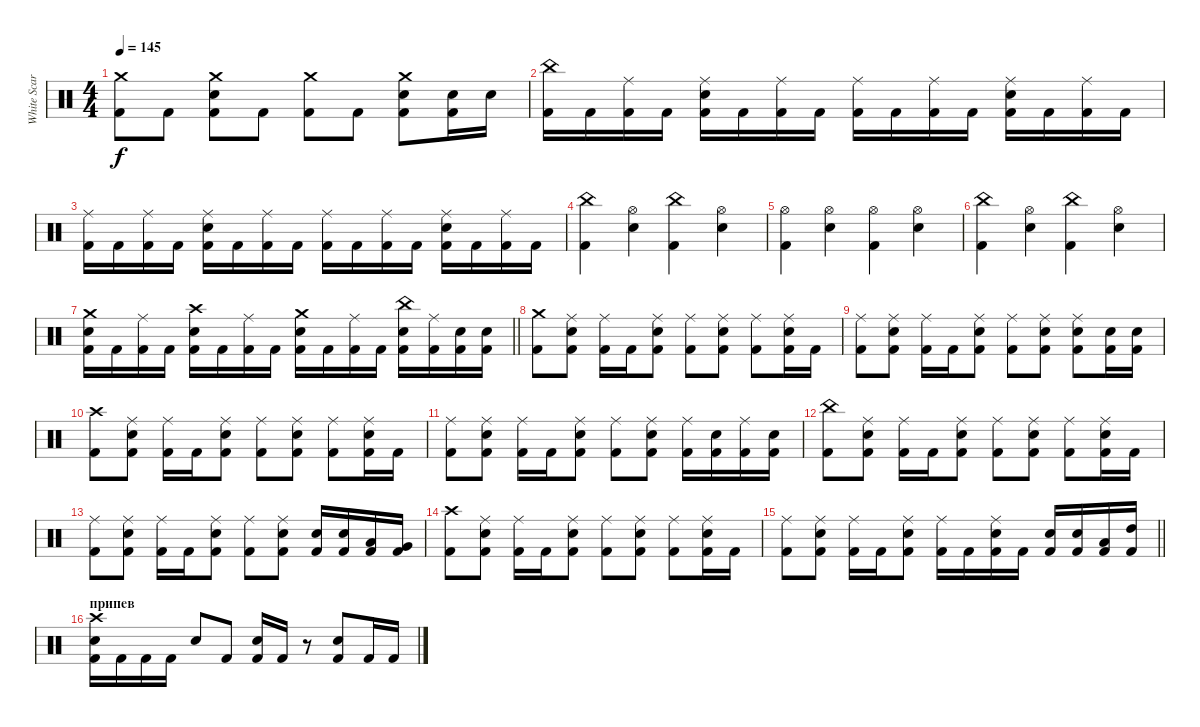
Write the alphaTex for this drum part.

\track ("White Scar" "White Scar") {instrument percussion}
\staff {score}
\articulation defaults
\ts (4 4)
\tempo 145
\clef neutral
\ks c
("Crash medium (hit)" "Kick (hit) 2").8{dy f} "Kick (hit) 2".8 ("Snare (hit) 2" "Crash medium (hit)" "Kick (hit) 2").8 "Kick (hit) 2".8 ("Crash medium (hit)" "Kick (hit) 2").8 "Kick (hit) 2".8 ("Snare (hit) 2" "Crash medium (hit)" "Kick (hit) 2").8 ("Snare (hit) 2" "Kick (hit) 2").16 "Snare (hit) 2".16 |
("China (hit)" "Kick (hit) 2").16 "Kick (hit) 2".16 ("Ride (middle)" "Kick (hit) 2").16 "Kick (hit) 2".16 ("Snare (hit) 2" "Ride (middle)" "Kick (hit) 2").16 "Kick (hit) 2".16 ("Ride (middle)" "Kick (hit) 2").16 "Kick (hit) 2".16 ("Ride (middle)" "Kick (hit) 2").16 "Kick (hit) 2".16 ("Ride (middle)" "Kick (hit) 2").16 "Kick (hit) 2".16 ("Snare (hit) 2" "Ride (middle)" "Kick (hit) 2").16 "Kick (hit) 2".16 ("Ride (middle)" "Kick (hit) 2").16 "Kick (hit) 2".16 |
("Ride (middle)" "Kick (hit) 2").16 "Kick (hit) 2".16 ("Ride (middle)" "Kick (hit) 2").16 "Kick (hit) 2".16 ("Snare (hit) 2" "Ride (middle)" "Kick (hit) 2").16 "Kick (hit) 2".16 ("Ride (middle)" "Kick (hit) 2").16 "Kick (hit) 2".16 ("Ride (middle)" "Kick (hit) 2").16 "Kick (hit) 2".16 ("Ride (middle)" "Kick (hit) 2").16 "Kick (hit) 2".16 ("Snare (hit) 2" "Ride (middle)" "Kick (hit) 2").16 "Kick (hit) 2".16 ("Ride (middle)" "Kick (hit) 2").16 "Kick (hit) 2".16 |
("China (hit)" "Kick (hit) 2").4 ("Hi-Hat (open)" "Snare (hit) 2").4 ("China (hit)" "Kick (hit) 2").4 ("Hi-Hat (open)" "Snare (hit) 2").4 |
("Hi-Hat (open)" "Kick (hit) 2").4 ("Hi-Hat (open)" "Snare (hit) 2").4 ("Hi-Hat (open)" "Kick (hit) 2").4 ("Hi-Hat (open)" "Snare (hit) 2").4 |
("China (hit)" "Kick (hit) 2").4 ("Hi-Hat (open)" "Snare (hit) 2").4 ("China (hit)" "Kick (hit) 2").4 ("Hi-Hat (open)" "Snare (hit) 2").4 |
\barLineRight lightlight
("Snare (hit) 2" "Crash medium (hit)" "Kick (hit) 2").16 "Kick (hit) 2".16 ("Ride (middle)" "Kick (hit) 2").16 "Kick (hit) 2".16 ("Snare (hit) 2" "Crash high (hit)" "Kick (hit) 2").16 "Kick (hit) 2".16 ("Ride (middle)" "Kick (hit) 2").16 "Kick (hit) 2".16 ("Snare (hit) 2" "Crash medium (hit)" "Kick (hit) 2").16 "Kick (hit) 2".16 ("Ride (middle)" "Kick (hit) 2").16 "Kick (hit) 2".16 ("Snare (hit) 2" "China (hit)" "Kick (hit) 2").16 ("Ride (middle)" "Kick (hit) 2").16 ("Snare (hit) 2" "Kick (hit) 2").16 ("Snare (hit) 2" "Kick (hit) 2").16 |
("Crash medium (hit)" "Kick (hit) 2").8 ("Ride (middle)" "Snare (hit) 2" "Kick (hit) 2").8 ("Ride (middle)" "Kick (hit) 2").16 "Kick (hit) 2".16 ("Ride (middle)" "Snare (hit) 2" "Kick (hit) 2").8 ("Ride (middle)" "Kick (hit) 2").8 ("Ride (middle)" "Snare (hit) 2" "Kick (hit) 2").8 ("Ride (middle)" "Kick (hit) 2").8 ("Ride (middle)" "Snare (hit) 2" "Kick (hit) 2").16 "Kick (hit) 2".16 |
("Ride (middle)" "Kick (hit) 2").8 ("Ride (middle)" "Snare (hit) 2" "Kick (hit) 2").8 ("Ride (middle)" "Kick (hit) 2").16 "Kick (hit) 2".16 ("Ride (middle)" "Snare (hit) 2" "Kick (hit) 2").8 ("Ride (middle)" "Kick (hit) 2").8 ("Ride (middle)" "Snare (hit) 2" "Kick (hit) 2").8 ("Ride (middle)" "Snare (hit) 2" "Kick (hit) 2").8 ("Snare (hit) 2" "Kick (hit) 2").16 ("Snare (hit) 2" "Kick (hit) 2").16 |
("Crash high (hit)" "Kick (hit) 2").8 ("Ride (middle)" "Snare (hit) 2" "Kick (hit) 2").8 ("Ride (middle)" "Kick (hit) 2").16 "Kick (hit) 2".16 ("Ride (middle)" "Snare (hit) 2" "Kick (hit) 2").8 ("Ride (middle)" "Kick (hit) 2").8 ("Ride (middle)" "Snare (hit) 2" "Kick (hit) 2").8 ("Ride (middle)" "Kick (hit) 2").8 ("Ride (middle)" "Snare (hit) 2" "Kick (hit) 2").16 "Kick (hit) 2".16 |
("Ride (middle)" "Kick (hit) 2").8 ("Ride (middle)" "Snare (hit) 2" "Kick (hit) 2").8 ("Ride (middle)" "Kick (hit) 2").16 "Kick (hit) 2".16 ("Ride (middle)" "Snare (hit) 2" "Kick (hit) 2").8 ("Ride (middle)" "Kick (hit) 2").8 ("Ride (middle)" "Snare (hit) 2" "Kick (hit) 2").8 ("Ride (middle)" "Kick (hit) 2").16 ("Snare (hit) 2" "Kick (hit) 2").16 ("Ride (middle)" "Kick (hit) 2").16 ("Snare (hit) 2" "Kick (hit) 2").16 |
("China (hit)" "Kick (hit) 2").8 ("Ride (middle)" "Snare (hit) 2" "Kick (hit) 2").8 ("Ride (middle)" "Kick (hit) 2").16 "Kick (hit) 2".16 ("Ride (middle)" "Snare (hit) 2" "Kick (hit) 2").8 ("Ride (middle)" "Kick (hit) 2").8 ("Ride (middle)" "Snare (hit) 2" "Kick (hit) 2").8 ("Ride (middle)" "Kick (hit) 2").8 ("Ride (middle)" "Snare (hit) 2" "Kick (hit) 2").16 "Kick (hit) 2".16 |
("Ride (middle)" "Kick (hit) 2").8 ("Ride (middle)" "Snare (hit) 2" "Kick (hit) 2").8 ("Ride (middle)" "Kick (hit) 2").16 "Kick (hit) 2".16 ("Ride (middle)" "Snare (hit) 2" "Kick (hit) 2").8 ("Ride (middle)" "Kick (hit) 2").8 ("Ride (middle)" "Snare (hit) 2" "Kick (hit) 2").8 ("Snare (hit) 2" "Kick (hit) 2").16 ("Snare (hit) 2" "Kick (hit) 2").16 ("Low Tom (hit)" "Kick (hit) 2").16 ("Very Low Tom (hit)" "Kick (hit) 2").16 |
("Crash high (hit)" "Kick (hit) 2").8 ("Ride (middle)" "Snare (hit) 2" "Kick (hit) 2").8 ("Ride (middle)" "Kick (hit) 2").16 "Kick (hit) 2".16 ("Ride (middle)" "Snare (hit) 2" "Kick (hit) 2").8 ("Ride (middle)" "Kick (hit) 2").8 ("Ride (middle)" "Snare (hit) 2" "Kick (hit) 2").8 ("Ride (middle)" "Kick (hit) 2").8 ("Ride (middle)" "Snare (hit) 2" "Kick (hit) 2").16 "Kick (hit) 2".16 |
\barLineRight lightlight
("Ride (middle)" "Kick (hit) 2").8 ("Ride (middle)" "Snare (hit) 2" "Kick (hit) 2").8 ("Ride (middle)" "Kick (hit) 2").16 "Kick (hit) 2".16 ("Ride (middle)" "Snare (hit) 2" "Kick (hit) 2").8 ("Ride (middle)" "Kick (hit) 2").16 "Kick (hit) 2".16 ("Ride (middle)" "Snare (hit) 2" "Kick (hit) 2").16 "Kick (hit) 2".16 ("Snare (hit) 2" "Kick (hit) 2").16 ("Snare (hit) 2" "Kick (hit) 2").16 ("Low Tom (hit)" "Kick (hit) 2").16 ("High Tom (hit)" "Kick (hit) 2").16 |
\section ("" "припев")
("Crash high (hit)" "Snare (hit) 2" "Kick (hit) 2").16 "Kick (hit) 2".16 "Kick (hit) 2".16 "Kick (hit) 2".16 "Snare (hit) 2".8 "Kick (hit) 2".8 ("Snare (hit) 2" "Kick (hit) 2").16 "Kick (hit) 2".16 r.8 ("Snare (hit) 2" "Kick (hit) 2").8 "Kick (hit) 2".16 "Kick (hit) 2".16
